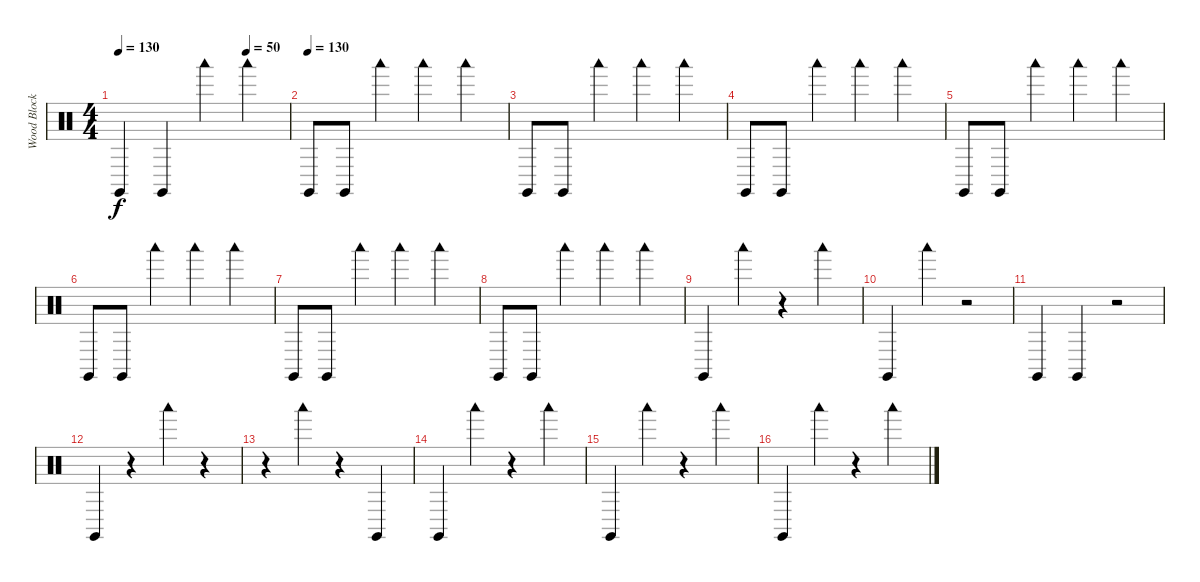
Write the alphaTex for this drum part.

\track ("Wood Blocks" "Wood Block") {instrument percussion}
\staff {score}
\articulation defaults
\ts (4 4)
\tempo 130
\tempo (50 0.75)
\clef neutral
\ks c "Claves (hit)".4{dy f} "Claves (hit)".4 "Woodblock low (hit)".4 "Woodblock low (hit)".4
|
\tempo (130)
"Claves (hit)".8 "Claves (hit)".8 "Woodblock low (hit)".4 "Woodblock low (hit)".4 "Woodblock low (hit)".4 |
"Claves (hit)".8 "Claves (hit)".8 "Woodblock low (hit)".4 "Woodblock low (hit)".4 "Woodblock low (hit)".4 |
"Claves (hit)".8 "Claves (hit)".8 "Woodblock low (hit)".4 "Woodblock low (hit)".4 "Woodblock low (hit)".4 |
"Claves (hit)".8 "Claves (hit)".8 "Woodblock low (hit)".4 "Woodblock low (hit)".4 "Woodblock low (hit)".4 |
"Claves (hit)".8 "Claves (hit)".8 "Woodblock low (hit)".4 "Woodblock low (hit)".4 "Woodblock low (hit)".4 |
"Claves (hit)".8 "Claves (hit)".8 "Woodblock low (hit)".4 "Woodblock low (hit)".4 "Woodblock low (hit)".4 |
"Claves (hit)".8 "Claves (hit)".8 "Woodblock low (hit)".4 "Woodblock low (hit)".4 "Woodblock low (hit)".4 |
"Claves (hit)".4 "Woodblock low (hit)".4 r.4 "Woodblock low (hit)".4 |
"Claves (hit)".4 "Woodblock low (hit)".4 r.2 |
"Claves (hit)".4 "Claves (hit)".4 r.2 |
"Claves (hit)".4 r.4 "Woodblock low (hit)".4 r.4 |
r.4 "Woodblock low (hit)".4 r.4 "Claves (hit)".4 |
"Claves (hit)".4 "Woodblock low (hit)".4 r.4 "Woodblock low (hit)".4 |
"Claves (hit)".4 "Woodblock low (hit)".4 r.4 "Woodblock low (hit)".4 |
"Claves (hit)".4 "Woodblock low (hit)".4 r.4 "Woodblock low (hit)".4
